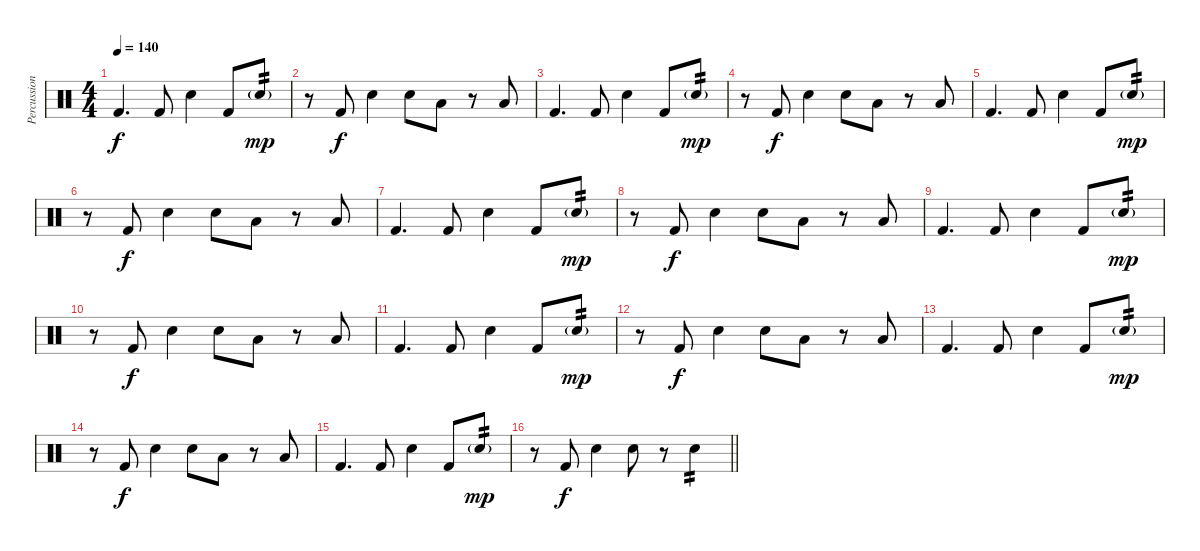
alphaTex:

\track ("Percussion" "Percussion") {instrument percussion}
\staff {score}
\articulation defaults
\ts (4 4)
\tempo 140
\clef neutral
\ks c "Kick (hit) 2".4{d dy f} "Kick (hit) 2".8 "Electric Snare (hit)".4 "Kick (hit) 2".8 "Electric Snare (hit)"{g}.8{tp 2 dy mp}
|
r.8 "Kick (hit) 2".8{dy f} "Electric Snare (hit)".4 "Electric Snare (hit)".8 "Low Tom (hit)".8 r.8 "Low Floor Tom (hit)".8 |
"Kick (hit) 2".4{d} "Kick (hit) 2".8 "Electric Snare (hit)".4 "Kick (hit) 2".8 "Electric Snare (hit)"{g}.8{tp 2 dy mp} |
r.8 "Kick (hit) 2".8{dy f} "Electric Snare (hit)".4 "Electric Snare (hit)".8 "Low Tom (hit)".8 r.8 "Low Floor Tom (hit)".8 |
"Kick (hit) 2".4{d} "Kick (hit) 2".8 "Electric Snare (hit)".4 "Kick (hit) 2".8 "Electric Snare (hit)"{g}.8{tp 2 dy mp} |
r.8 "Kick (hit) 2".8{dy f} "Electric Snare (hit)".4 "Electric Snare (hit)".8 "Low Tom (hit)".8 r.8 "Low Floor Tom (hit)".8 |
"Kick (hit) 2".4{d} "Kick (hit) 2".8 "Electric Snare (hit)".4 "Kick (hit) 2".8 "Electric Snare (hit)"{g}.8{tp 2 dy mp} |
r.8 "Kick (hit) 2".8{dy f} "Electric Snare (hit)".4 "Electric Snare (hit)".8 "Low Tom (hit)".8 r.8 "Low Floor Tom (hit)".8 |
"Kick (hit) 2".4{d} "Kick (hit) 2".8 "Electric Snare (hit)".4 "Kick (hit) 2".8 "Electric Snare (hit)"{g}.8{tp 2 dy mp} |
r.8 "Kick (hit) 2".8{dy f} "Electric Snare (hit)".4 "Electric Snare (hit)".8 "Low Tom (hit)".8 r.8 "Low Floor Tom (hit)".8 |
"Kick (hit) 2".4{d} "Kick (hit) 2".8 "Electric Snare (hit)".4 "Kick (hit) 2".8 "Electric Snare (hit)"{g}.8{tp 2 dy mp} |
r.8 "Kick (hit) 2".8{dy f} "Electric Snare (hit)".4 "Electric Snare (hit)".8 "Low Tom (hit)".8 r.8 "Low Floor Tom (hit)".8 |
"Kick (hit) 2".4{d} "Kick (hit) 2".8 "Electric Snare (hit)".4 "Kick (hit) 2".8 "Electric Snare (hit)"{g}.8{tp 2 dy mp} |
r.8 "Kick (hit) 2".8{dy f} "Electric Snare (hit)".4 "Electric Snare (hit)".8 "Low Tom (hit)".8 r.8 "Low Floor Tom (hit)".8 |
"Kick (hit) 2".4{d} "Kick (hit) 2".8 "Electric Snare (hit)".4 "Kick (hit) 2".8 "Electric Snare (hit)"{g}.8{tp 2 dy mp} |
\barLineRight lightlight
r.8 "Kick (hit) 2".8{dy f} "Electric Snare (hit)".4 "Electric Snare (hit)".8 r.8 "Electric Snare (hit)".4{tp 2}
